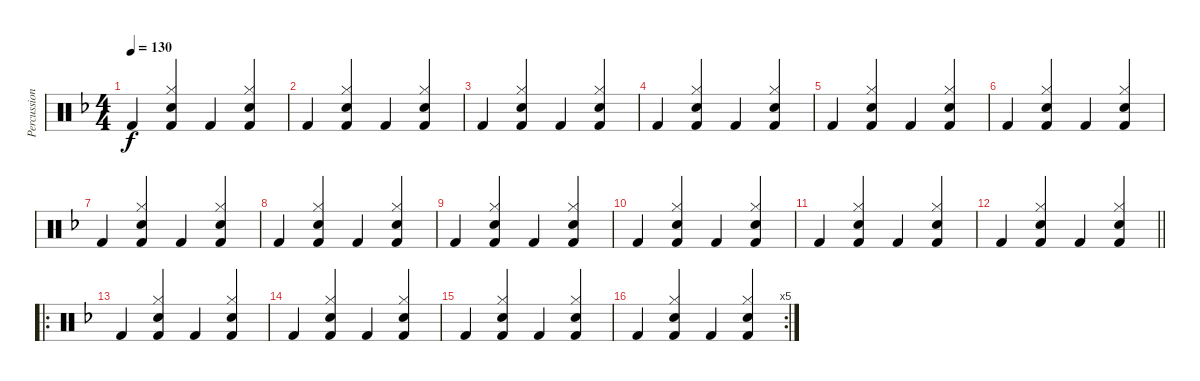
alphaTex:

\track ("Percussion" "Percussion") {instrument percussion}
\staff {score}
\articulation defaults
\ts (4 4)
\tempo 130
\clef neutral
\ks f "Kick (hit) 2".4{dy f}
("Hi-Hat (closed)" "Snare (hit) 2" "Kick (hit) 2").4 "Kick (hit) 2".4 ("Hi-Hat (closed)" "Snare (hit) 2" "Kick (hit) 2").4 |
"Kick (hit) 2".4 ("Hi-Hat (closed)" "Snare (hit) 2" "Kick (hit) 2").4 "Kick (hit) 2".4 ("Hi-Hat (closed)" "Snare (hit) 2" "Kick (hit) 2").4 |
"Kick (hit) 2".4 ("Hi-Hat (closed)" "Snare (hit) 2" "Kick (hit) 2").4 "Kick (hit) 2".4 ("Hi-Hat (closed)" "Snare (hit) 2" "Kick (hit) 2").4 |
"Kick (hit) 2".4 ("Hi-Hat (closed)" "Snare (hit) 2" "Kick (hit) 2").4 "Kick (hit) 2".4 ("Hi-Hat (closed)" "Snare (hit) 2" "Kick (hit) 2").4 |
"Kick (hit) 2".4 ("Hi-Hat (closed)" "Snare (hit) 2" "Kick (hit) 2").4 "Kick (hit) 2".4 ("Hi-Hat (closed)" "Snare (hit) 2" "Kick (hit) 2").4 |
"Kick (hit) 2".4 ("Hi-Hat (closed)" "Snare (hit) 2" "Kick (hit) 2").4 "Kick (hit) 2".4 ("Hi-Hat (closed)" "Snare (hit) 2" "Kick (hit) 2").4 |
"Kick (hit) 2".4 ("Hi-Hat (closed)" "Snare (hit) 2" "Kick (hit) 2").4 "Kick (hit) 2".4 ("Hi-Hat (closed)" "Snare (hit) 2" "Kick (hit) 2").4 |
"Kick (hit) 2".4 ("Hi-Hat (closed)" "Snare (hit) 2" "Kick (hit) 2").4 "Kick (hit) 2".4 ("Hi-Hat (closed)" "Snare (hit) 2" "Kick (hit) 2").4 |
"Kick (hit) 2".4 ("Hi-Hat (closed)" "Snare (hit) 2" "Kick (hit) 2").4 "Kick (hit) 2".4 ("Hi-Hat (closed)" "Snare (hit) 2" "Kick (hit) 2").4 |
"Kick (hit) 2".4 ("Hi-Hat (closed)" "Snare (hit) 2" "Kick (hit) 2").4 "Kick (hit) 2".4 ("Hi-Hat (closed)" "Snare (hit) 2" "Kick (hit) 2").4 |
"Kick (hit) 2".4 ("Hi-Hat (closed)" "Snare (hit) 2" "Kick (hit) 2").4 "Kick (hit) 2".4 ("Hi-Hat (closed)" "Snare (hit) 2" "Kick (hit) 2").4 |
\barLineRight lightlight "Kick (hit) 2".4
("Hi-Hat (closed)" "Snare (hit) 2" "Kick (hit) 2").4 "Kick (hit) 2".4 ("Hi-Hat (closed)" "Snare (hit) 2" "Kick (hit) 2").4 |
\ro "Kick (hit) 2".4
("Hi-Hat (closed)" "Snare (hit) 2" "Kick (hit) 2").4 "Kick (hit) 2".4 ("Hi-Hat (closed)" "Snare (hit) 2" "Kick (hit) 2").4 |
"Kick (hit) 2".4 ("Hi-Hat (closed)" "Snare (hit) 2" "Kick (hit) 2").4 "Kick (hit) 2".4 ("Hi-Hat (closed)" "Snare (hit) 2" "Kick (hit) 2").4 |
"Kick (hit) 2".4 ("Hi-Hat (closed)" "Snare (hit) 2" "Kick (hit) 2").4 "Kick (hit) 2".4 ("Hi-Hat (closed)" "Snare (hit) 2" "Kick (hit) 2").4 |
\rc 5 "Kick (hit) 2".4
("Hi-Hat (closed)" "Snare (hit) 2" "Kick (hit) 2").4 "Kick (hit) 2".4 ("Hi-Hat (closed)" "Snare (hit) 2" "Kick (hit) 2").4
